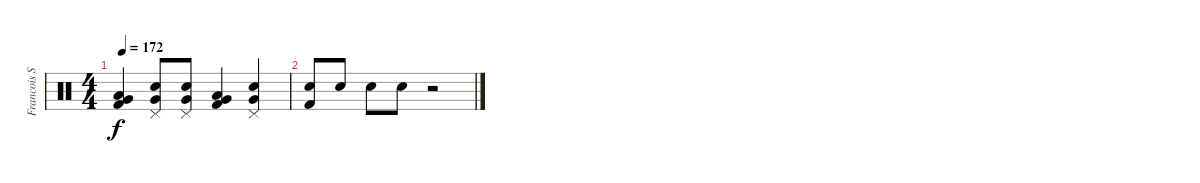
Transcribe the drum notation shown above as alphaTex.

\track ("Francois Soulier" "Francois S") {instrument percussion}
\staff {score}
\articulation defaults
\ts (4 4)
\tempo 172
\clef neutral
\ks c
("Kick (hit) 2" "Very Low Tom (hit)" "Low Floor Tom (hit)").4{dy f} ("Very Low Tom (hit)" "Electric Snare (hit)" "Pedal Hi-Hat (hit)").8 ("Very Low Tom (hit)" "Electric Snare (hit)" "Pedal Hi-Hat (hit)").8 ("Kick (hit) 2" "Very Low Tom (hit)" "Low Floor Tom (hit)").4 ("Very Low Tom (hit)" "Electric Snare (hit)" "Pedal Hi-Hat (hit)").4 |
("Kick (hit) 2" "Electric Snare (hit)").8 "Electric Snare (hit)".8 "Electric Snare (hit)".8 "Electric Snare (hit)".8 r.2
